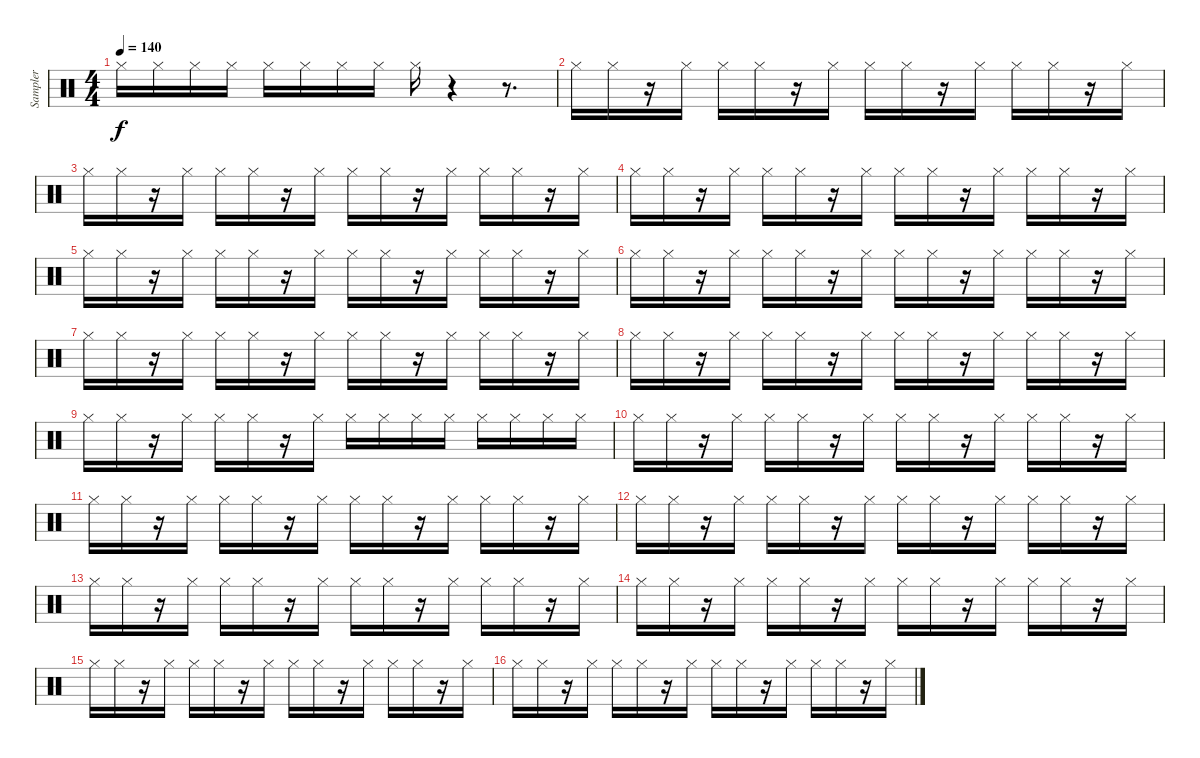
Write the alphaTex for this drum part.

\track ("Sampler" "Sampler") {instrument percussion}
\staff {score}
\articulation defaults
\ts (4 4)
\tempo 140
\clef neutral
\ks c "Hi-Hat (closed)".16{dy f} "Hi-Hat (closed)".16 "Hi-Hat (closed)".16 "Hi-Hat (closed)".16 "Hi-Hat (closed)".16 "Hi-Hat (closed)".16 "Hi-Hat (closed)".16 "Hi-Hat (closed)".16 "Hi-Hat (closed)".16
r.4 r.8{d} |
"Hi-Hat (closed)".16 "Hi-Hat (closed)".16 r.16 "Hi-Hat (closed)".16 "Hi-Hat (closed)".16 "Hi-Hat (closed)".16 r.16 "Hi-Hat (closed)".16 "Hi-Hat (closed)".16 "Hi-Hat (closed)".16 r.16 "Hi-Hat (closed)".16 "Hi-Hat (closed)".16 "Hi-Hat (closed)".16 r.16 "Hi-Hat (closed)".16 |
"Hi-Hat (closed)".16 "Hi-Hat (closed)".16 r.16 "Hi-Hat (closed)".16 "Hi-Hat (closed)".16 "Hi-Hat (closed)".16 r.16 "Hi-Hat (closed)".16 "Hi-Hat (closed)".16 "Hi-Hat (closed)".16 r.16 "Hi-Hat (closed)".16 "Hi-Hat (closed)".16 "Hi-Hat (closed)".16 r.16 "Hi-Hat (closed)".16 |
"Hi-Hat (closed)".16 "Hi-Hat (closed)".16 r.16 "Hi-Hat (closed)".16 "Hi-Hat (closed)".16 "Hi-Hat (closed)".16 r.16 "Hi-Hat (closed)".16 "Hi-Hat (closed)".16 "Hi-Hat (closed)".16 r.16 "Hi-Hat (closed)".16 "Hi-Hat (closed)".16 "Hi-Hat (closed)".16 r.16 "Hi-Hat (closed)".16 |
"Hi-Hat (closed)".16 "Hi-Hat (closed)".16 r.16 "Hi-Hat (closed)".16 "Hi-Hat (closed)".16 "Hi-Hat (closed)".16 r.16 "Hi-Hat (closed)".16 "Hi-Hat (closed)".16 "Hi-Hat (closed)".16 r.16 "Hi-Hat (closed)".16 "Hi-Hat (closed)".16 "Hi-Hat (closed)".16 r.16 "Hi-Hat (closed)".16 |
"Hi-Hat (closed)".16 "Hi-Hat (closed)".16 r.16 "Hi-Hat (closed)".16 "Hi-Hat (closed)".16 "Hi-Hat (closed)".16 r.16 "Hi-Hat (closed)".16 "Hi-Hat (closed)".16 "Hi-Hat (closed)".16 r.16 "Hi-Hat (closed)".16 "Hi-Hat (closed)".16 "Hi-Hat (closed)".16 r.16 "Hi-Hat (closed)".16 |
"Hi-Hat (closed)".16 "Hi-Hat (closed)".16 r.16 "Hi-Hat (closed)".16 "Hi-Hat (closed)".16 "Hi-Hat (closed)".16 r.16 "Hi-Hat (closed)".16 "Hi-Hat (closed)".16 "Hi-Hat (closed)".16 r.16 "Hi-Hat (closed)".16 "Hi-Hat (closed)".16 "Hi-Hat (closed)".16 r.16 "Hi-Hat (closed)".16 |
"Hi-Hat (closed)".16 "Hi-Hat (closed)".16 r.16 "Hi-Hat (closed)".16 "Hi-Hat (closed)".16 "Hi-Hat (closed)".16 r.16 "Hi-Hat (closed)".16 "Hi-Hat (closed)".16 "Hi-Hat (closed)".16 r.16 "Hi-Hat (closed)".16 "Hi-Hat (closed)".16 "Hi-Hat (closed)".16 r.16 "Hi-Hat (closed)".16 |
"Hi-Hat (closed)".16 "Hi-Hat (closed)".16 r.16 "Hi-Hat (closed)".16 "Hi-Hat (closed)".16 "Hi-Hat (closed)".16 r.16 "Hi-Hat (closed)".16 "Hi-Hat (closed)".16 "Hi-Hat (closed)".16 "Hi-Hat (closed)".16 "Hi-Hat (closed)".16 "Hi-Hat (closed)".16 "Hi-Hat (closed)".16 "Hi-Hat (closed)".16 "Hi-Hat (closed)".16 |
"Hi-Hat (closed)".16 "Hi-Hat (closed)".16 r.16 "Hi-Hat (closed)".16 "Hi-Hat (closed)".16 "Hi-Hat (closed)".16 r.16 "Hi-Hat (closed)".16 "Hi-Hat (closed)".16 "Hi-Hat (closed)".16 r.16 "Hi-Hat (closed)".16 "Hi-Hat (closed)".16 "Hi-Hat (closed)".16 r.16 "Hi-Hat (closed)".16 |
"Hi-Hat (closed)".16 "Hi-Hat (closed)".16 r.16 "Hi-Hat (closed)".16 "Hi-Hat (closed)".16 "Hi-Hat (closed)".16 r.16 "Hi-Hat (closed)".16 "Hi-Hat (closed)".16 "Hi-Hat (closed)".16 r.16 "Hi-Hat (closed)".16 "Hi-Hat (closed)".16 "Hi-Hat (closed)".16 r.16 "Hi-Hat (closed)".16 |
"Hi-Hat (closed)".16 "Hi-Hat (closed)".16 r.16 "Hi-Hat (closed)".16 "Hi-Hat (closed)".16 "Hi-Hat (closed)".16 r.16 "Hi-Hat (closed)".16 "Hi-Hat (closed)".16 "Hi-Hat (closed)".16 r.16 "Hi-Hat (closed)".16 "Hi-Hat (closed)".16 "Hi-Hat (closed)".16 r.16 "Hi-Hat (closed)".16 |
"Hi-Hat (closed)".16 "Hi-Hat (closed)".16 r.16 "Hi-Hat (closed)".16 "Hi-Hat (closed)".16 "Hi-Hat (closed)".16 r.16 "Hi-Hat (closed)".16 "Hi-Hat (closed)".16 "Hi-Hat (closed)".16 r.16 "Hi-Hat (closed)".16 "Hi-Hat (closed)".16 "Hi-Hat (closed)".16 r.16 "Hi-Hat (closed)".16 |
"Hi-Hat (closed)".16 "Hi-Hat (closed)".16 r.16 "Hi-Hat (closed)".16 "Hi-Hat (closed)".16 "Hi-Hat (closed)".16 r.16 "Hi-Hat (closed)".16 "Hi-Hat (closed)".16 "Hi-Hat (closed)".16 r.16 "Hi-Hat (closed)".16 "Hi-Hat (closed)".16 "Hi-Hat (closed)".16 r.16 "Hi-Hat (closed)".16 |
"Hi-Hat (closed)".16 "Hi-Hat (closed)".16 r.16 "Hi-Hat (closed)".16 "Hi-Hat (closed)".16 "Hi-Hat (closed)".16 r.16 "Hi-Hat (closed)".16 "Hi-Hat (closed)".16 "Hi-Hat (closed)".16 r.16 "Hi-Hat (closed)".16 "Hi-Hat (closed)".16 "Hi-Hat (closed)".16 r.16 "Hi-Hat (closed)".16 |
"Hi-Hat (closed)".16 "Hi-Hat (closed)".16 r.16 "Hi-Hat (closed)".16 "Hi-Hat (closed)".16 "Hi-Hat (closed)".16 r.16 "Hi-Hat (closed)".16 "Hi-Hat (closed)".16 "Hi-Hat (closed)".16 r.16 "Hi-Hat (closed)".16 "Hi-Hat (closed)".16 "Hi-Hat (closed)".16 r.16 "Hi-Hat (closed)".16
